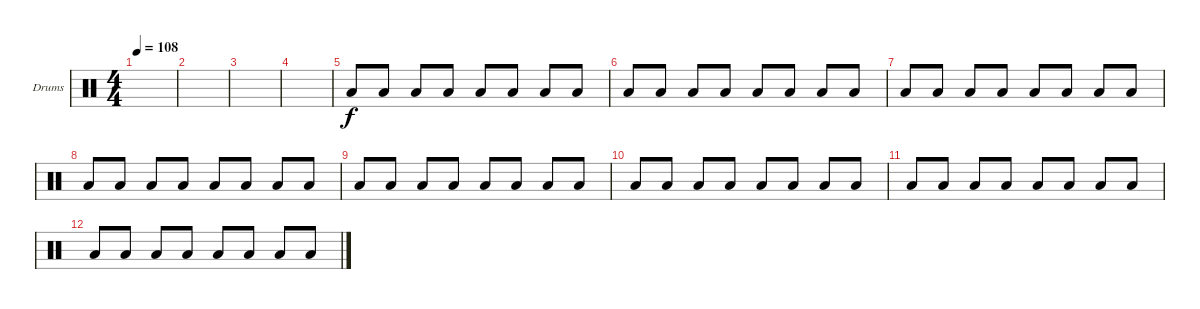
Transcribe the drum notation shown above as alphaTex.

\defaultSystemsLayout 4
\bracketExtendMode groupsimilarinstruments
\firstSystemTrackNameOrientation horizontal
\otherSystemsTrackNameOrientation horizontal
\track ("Drumkit" "Drums") {instrument percussion}
\staff {score}
\articulation defaults
\ts (4 4)
\tempo 108
\clef neutral
\ks c
|
|
|
|
"Low Tom (hit)".8 "Low Tom (hit)".8 "Low Tom (hit)".8 "Low Tom (hit)".8 "Low Tom (hit)".8 "Low Tom (hit)".8 "Low Tom (hit)".8 "Low Tom (hit)".8 |
"Low Tom (hit)".8 "Low Tom (hit)".8 "Low Tom (hit)".8 "Low Tom (hit)".8 "Low Tom (hit)".8 "Low Tom (hit)".8 "Low Tom (hit)".8 "Low Tom (hit)".8 |
"Low Tom (hit)".8 "Low Tom (hit)".8 "Low Tom (hit)".8 "Low Tom (hit)".8 "Low Tom (hit)".8 "Low Tom (hit)".8 "Low Tom (hit)".8 "Low Tom (hit)".8 |
"Low Tom (hit)".8 "Low Tom (hit)".8 "Low Tom (hit)".8 "Low Tom (hit)".8 "Low Tom (hit)".8 "Low Tom (hit)".8 "Low Tom (hit)".8 "Low Tom (hit)".8 |
"Low Tom (hit)".8 "Low Tom (hit)".8 "Low Tom (hit)".8 "Low Tom (hit)".8 "Low Tom (hit)".8 "Low Tom (hit)".8 "Low Tom (hit)".8 "Low Tom (hit)".8 |
"Low Tom (hit)".8 "Low Tom (hit)".8 "Low Tom (hit)".8 "Low Tom (hit)".8 "Low Tom (hit)".8 "Low Tom (hit)".8 "Low Tom (hit)".8 "Low Tom (hit)".8 |
"Low Tom (hit)".8 "Low Tom (hit)".8 "Low Tom (hit)".8 "Low Tom (hit)".8 "Low Tom (hit)".8 "Low Tom (hit)".8 "Low Tom (hit)".8 "Low Tom (hit)".8 |
"Low Tom (hit)".8 "Low Tom (hit)".8 "Low Tom (hit)".8 "Low Tom (hit)".8 "Low Tom (hit)".8 "Low Tom (hit)".8 "Low Tom (hit)".8 "Low Tom (hit)".8
